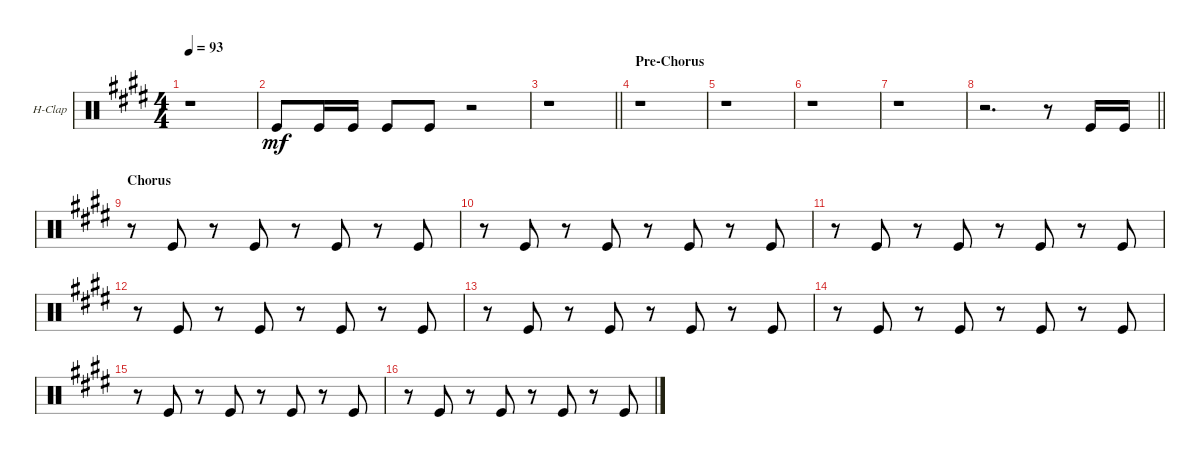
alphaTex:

\defaultSystemsLayout 4
\bracketExtendMode groupsimilarinstruments
\firstSystemTrackNameOrientation horizontal
\otherSystemsTrackNameOrientation horizontal
\track ("Hand Clap" "H-Clap") {instrument percussion}
\staff {score}
\articulation defaults
\ts (4 4)
\tempo 93
\clef neutral
\ks e
r.1{dy mf} |
"Kick (hit)".8 "Kick (hit)".16 "Kick (hit)".16 "Kick (hit)".8 "Kick (hit)".8 r.2 |
\barLineRight lightlight
r.1 |
\section ("" "Pre-Chorus")
r.1 |
r.1 |
r.1 |
r.1 |
\barLineRight lightlight
r.2{d} r.8 "Kick (hit)".16 "Kick (hit)".16 |
\section ("" "Chorus")
r.8 "Kick (hit)".8 r.8 "Kick (hit)".8 r.8 "Kick (hit)".8 r.8 "Kick (hit)".8 |
r.8 "Kick (hit)".8 r.8 "Kick (hit)".8 r.8 "Kick (hit)".8 r.8 "Kick (hit)".8 |
r.8 "Kick (hit)".8 r.8 "Kick (hit)".8 r.8 "Kick (hit)".8 r.8 "Kick (hit)".8 |
r.8 "Kick (hit)".8 r.8 "Kick (hit)".8 r.8 "Kick (hit)".8 r.8 "Kick (hit)".8 |
r.8 "Kick (hit)".8 r.8 "Kick (hit)".8 r.8 "Kick (hit)".8 r.8 "Kick (hit)".8 |
r.8 "Kick (hit)".8 r.8 "Kick (hit)".8 r.8 "Kick (hit)".8 r.8 "Kick (hit)".8 |
r.8 "Kick (hit)".8 r.8 "Kick (hit)".8 r.8 "Kick (hit)".8 r.8 "Kick (hit)".8 |
r.8 "Kick (hit)".8 r.8 "Kick (hit)".8 r.8 "Kick (hit)".8 r.8 "Kick (hit)".8
